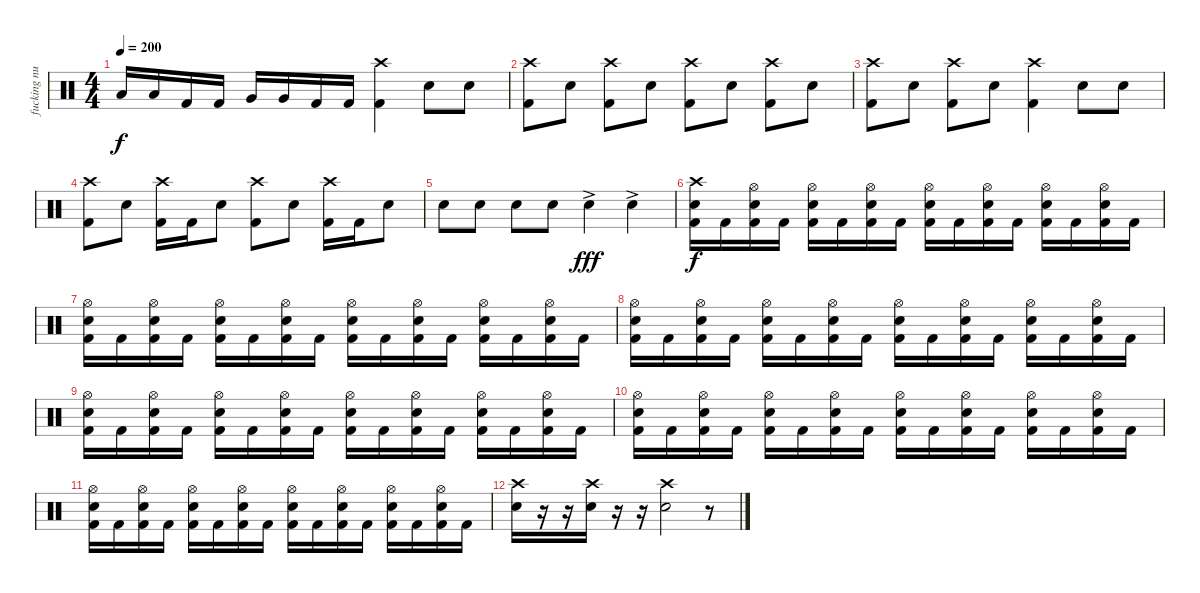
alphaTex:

\track ("fucking nuts." "fucking nu") {instrument percussion}
\staff {score}
\articulation defaults
\ts (4 4)
\tempo 200
\clef neutral
\ks c "Low Tom (hit)".16{dy f} "Low Tom (hit)".16 "Kick (hit) 2".16 "Kick (hit) 2".16 "Very Low Tom (hit)".16 "Very Low Tom (hit)".16 "Kick (hit) 2".16 "Kick (hit) 2".16
("Crash high (hit)" "Kick (hit) 2").4 "Electric Snare (hit)".8 "Electric Snare (hit)".8 |
("Crash high (hit)" "Kick (hit) 2").8 "Electric Snare (hit)".8 ("Crash high (hit)" "Kick (hit) 2").8 "Electric Snare (hit)".8 ("Crash high (hit)" "Kick (hit) 2").8 "Electric Snare (hit)".8 ("Crash high (hit)" "Kick (hit) 2").8 "Electric Snare (hit)".8 |
("Crash high (hit)" "Kick (hit) 2").8 "Electric Snare (hit)".8 ("Crash high (hit)" "Kick (hit) 2").8 "Electric Snare (hit)".8 ("Crash high (hit)" "Kick (hit) 2").4 "Electric Snare (hit)".8 "Electric Snare (hit)".8 |
("Crash high (hit)" "Kick (hit) 2").8 "Electric Snare (hit)".8 ("Crash high (hit)" "Kick (hit) 2").16 "Kick (hit) 2".16 "Electric Snare (hit)".8 ("Crash high (hit)" "Kick (hit) 2").8 "Electric Snare (hit)".8 ("Crash high (hit)" "Kick (hit) 2").16 "Kick (hit) 2".16 "Electric Snare (hit)".8 |
"Electric Snare (hit)".8 "Electric Snare (hit)".8 "Electric Snare (hit)".8 "Electric Snare (hit)".8 "Electric Snare (hit)"{ac}.4{dy fff} "Electric Snare (hit)"{ac}.4 |
("Crash high (hit)" "Electric Snare (hit)" "Kick (hit) 2").16{dy f} "Kick (hit) 2".16 ("Hi-Hat (open)" "Electric Snare (hit)" "Kick (hit) 2").16 "Kick (hit) 2".16 ("Hi-Hat (open)" "Electric Snare (hit)" "Kick (hit) 2").16 "Kick (hit) 2".16 ("Hi-Hat (open)" "Electric Snare (hit)" "Kick (hit) 2").16 "Kick (hit) 2".16 ("Hi-Hat (open)" "Electric Snare (hit)" "Kick (hit) 2").16 "Kick (hit) 2".16 ("Hi-Hat (open)" "Electric Snare (hit)" "Kick (hit) 2").16 "Kick (hit) 2".16 ("Hi-Hat (open)" "Electric Snare (hit)" "Kick (hit) 2").16 "Kick (hit) 2".16 ("Hi-Hat (open)" "Electric Snare (hit)" "Kick (hit) 2").16 "Kick (hit) 2".16 |
("Hi-Hat (open)" "Electric Snare (hit)" "Kick (hit) 2").16 "Kick (hit) 2".16 ("Hi-Hat (open)" "Electric Snare (hit)" "Kick (hit) 2").16 "Kick (hit) 2".16 ("Hi-Hat (open)" "Electric Snare (hit)" "Kick (hit) 2").16 "Kick (hit) 2".16 ("Hi-Hat (open)" "Electric Snare (hit)" "Kick (hit) 2").16 "Kick (hit) 2".16 ("Hi-Hat (open)" "Electric Snare (hit)" "Kick (hit) 2").16 "Kick (hit) 2".16 ("Hi-Hat (open)" "Electric Snare (hit)" "Kick (hit) 2").16 "Kick (hit) 2".16 ("Hi-Hat (open)" "Electric Snare (hit)" "Kick (hit) 2").16 "Kick (hit) 2".16 ("Hi-Hat (open)" "Electric Snare (hit)" "Kick (hit) 2").16 "Kick (hit) 2".16 |
("Hi-Hat (open)" "Electric Snare (hit)" "Kick (hit) 2").16 "Kick (hit) 2".16 ("Hi-Hat (open)" "Electric Snare (hit)" "Kick (hit) 2").16 "Kick (hit) 2".16 ("Hi-Hat (open)" "Electric Snare (hit)" "Kick (hit) 2").16 "Kick (hit) 2".16 ("Hi-Hat (open)" "Electric Snare (hit)" "Kick (hit) 2").16 "Kick (hit) 2".16 ("Hi-Hat (open)" "Electric Snare (hit)" "Kick (hit) 2").16 "Kick (hit) 2".16 ("Hi-Hat (open)" "Electric Snare (hit)" "Kick (hit) 2").16 "Kick (hit) 2".16 ("Hi-Hat (open)" "Electric Snare (hit)" "Kick (hit) 2").16 "Kick (hit) 2".16 ("Hi-Hat (open)" "Electric Snare (hit)" "Kick (hit) 2").16 "Kick (hit) 2".16 |
("Hi-Hat (open)" "Electric Snare (hit)" "Kick (hit) 2").16 "Kick (hit) 2".16 ("Hi-Hat (open)" "Electric Snare (hit)" "Kick (hit) 2").16 "Kick (hit) 2".16 ("Hi-Hat (open)" "Electric Snare (hit)" "Kick (hit) 2").16 "Kick (hit) 2".16 ("Hi-Hat (open)" "Electric Snare (hit)" "Kick (hit) 2").16 "Kick (hit) 2".16 ("Hi-Hat (open)" "Electric Snare (hit)" "Kick (hit) 2").16 "Kick (hit) 2".16 ("Hi-Hat (open)" "Electric Snare (hit)" "Kick (hit) 2").16 "Kick (hit) 2".16 ("Hi-Hat (open)" "Electric Snare (hit)" "Kick (hit) 2").16 "Kick (hit) 2".16 ("Hi-Hat (open)" "Electric Snare (hit)" "Kick (hit) 2").16 "Kick (hit) 2".16 |
("Hi-Hat (open)" "Electric Snare (hit)" "Kick (hit) 2").16 "Kick (hit) 2".16 ("Hi-Hat (open)" "Electric Snare (hit)" "Kick (hit) 2").16 "Kick (hit) 2".16 ("Hi-Hat (open)" "Electric Snare (hit)" "Kick (hit) 2").16 "Kick (hit) 2".16 ("Hi-Hat (open)" "Electric Snare (hit)" "Kick (hit) 2").16 "Kick (hit) 2".16 ("Hi-Hat (open)" "Electric Snare (hit)" "Kick (hit) 2").16 "Kick (hit) 2".16 ("Hi-Hat (open)" "Electric Snare (hit)" "Kick (hit) 2").16 "Kick (hit) 2".16 ("Hi-Hat (open)" "Electric Snare (hit)" "Kick (hit) 2").16 "Kick (hit) 2".16 ("Hi-Hat (open)" "Electric Snare (hit)" "Kick (hit) 2").16 "Kick (hit) 2".16 |
("Hi-Hat (open)" "Electric Snare (hit)" "Kick (hit) 2").16 "Kick (hit) 2".16 ("Hi-Hat (open)" "Electric Snare (hit)" "Kick (hit) 2").16 "Kick (hit) 2".16 ("Hi-Hat (open)" "Electric Snare (hit)" "Kick (hit) 2").16 "Kick (hit) 2".16 ("Hi-Hat (open)" "Electric Snare (hit)" "Kick (hit) 2").16 "Kick (hit) 2".16 ("Hi-Hat (open)" "Electric Snare (hit)" "Kick (hit) 2").16 "Kick (hit) 2".16 ("Hi-Hat (open)" "Electric Snare (hit)" "Kick (hit) 2").16 "Kick (hit) 2".16 ("Hi-Hat (open)" "Electric Snare (hit)" "Kick (hit) 2").16 "Kick (hit) 2".16 ("Hi-Hat (open)" "Electric Snare (hit)" "Kick (hit) 2").16 "Kick (hit) 2".16 |
("Crash high (hit)" "Electric Snare (hit)").16 r.16 r.16 ("Crash high (hit)" "Electric Snare (hit)").16 r.16 r.16 ("Crash high (hit)" "Electric Snare (hit)").2 r.8
